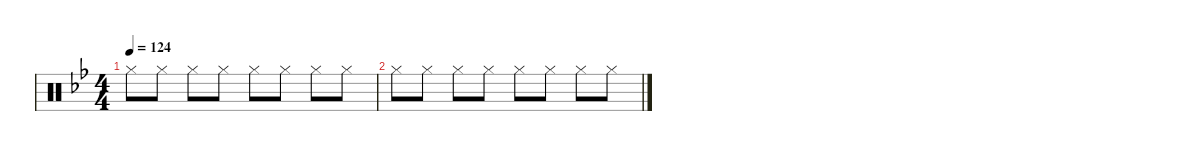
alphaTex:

\defaultSystemsLayout 4
\hideDynamics
\bracketExtendMode nobrackets
\singleTrackTrackNamePolicy hidden
\multiTrackTrackNamePolicy hidden
\firstSystemTrackNameMode fullname
\firstSystemTrackNameOrientation horizontal
\otherSystemsTrackNameOrientation horizontal
\track ("Percussion" "drm.") {instrument percussion}
\staff {score}
\articulation defaults
\ts (4 4)
\tempo 124
\clef neutral
\ks gminor "Hi-Hat (closed)"{acc forcenatural}.8{dy f beam Down} "Hi-Hat (closed)"{acc forcenatural}.8{beam Down} "Hi-Hat (closed)"{acc forcenatural}.8{beam Down} "Hi-Hat (closed)"{acc forcenatural}.8{beam Down} "Hi-Hat (closed)"{acc forcenatural}.8{beam Down} "Hi-Hat (closed)"{acc forcenatural}.8{beam Down} "Hi-Hat (closed)"{acc forcenatural}.8{beam Down} "Hi-Hat (closed)"{acc forcenatural}.8{beam Down}
|
"Hi-Hat (closed)"{acc forcenatural}.8{beam Down} "Hi-Hat (closed)"{acc forcenatural}.8{beam Down} "Hi-Hat (closed)"{acc forcenatural}.8{beam Down} "Hi-Hat (closed)"{acc forcenatural}.8{beam Down} "Hi-Hat (closed)"{acc forcenatural}.8{beam Down} "Hi-Hat (closed)"{acc forcenatural}.8{beam Down} "Hi-Hat (closed)"{acc forcenatural}.8{beam Down} "Hi-Hat (closed)"{acc forcenatural}.8{beam Down}
